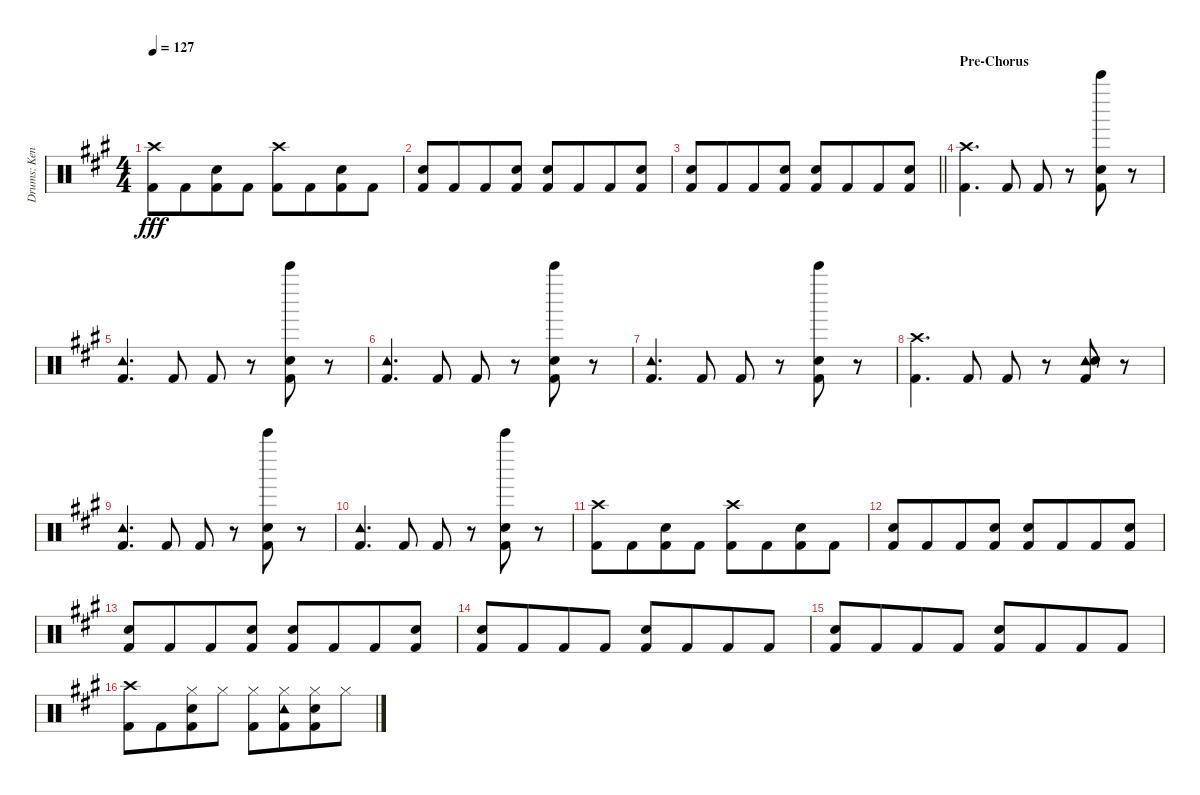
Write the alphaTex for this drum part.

\track ("Drums: Kenny" "Drums: Ken") {instrument percussion}
\staff {score}
\articulation defaults
\ts (4 4)
\tempo 127
\clef neutral
\ks a
("Crash high (hit)" "Kick (hit) 2").8{dy fff} "Kick (hit) 2".8{beam merge} ("Snare (hit) 2" "Kick (hit) 2").8 "Kick (hit) 2".8 ("Crash high (hit)" "Kick (hit) 2").8 "Kick (hit) 2".8{beam merge} ("Snare (hit) 2" "Kick (hit) 2").8 "Kick (hit) 2".8 |
("Snare (hit) 2" "Kick (hit) 2").8 "Kick (hit) 2".8{beam merge} "Kick (hit) 2".8 ("Snare (hit) 2" "Kick (hit) 2").8 ("Snare (hit) 2" "Kick (hit) 2").8 "Kick (hit) 2".8{beam merge} "Kick (hit) 2".8 ("Snare (hit) 2" "Kick (hit) 2").8 |
\barLineRight lightlight
("Snare (hit) 2" "Kick (hit) 2").8 "Kick (hit) 2".8{beam merge} "Kick (hit) 2".8 ("Snare (hit) 2" "Kick (hit) 2").8 ("Snare (hit) 2" "Kick (hit) 2").8 "Kick (hit) 2".8{beam merge} "Kick (hit) 2".8 ("Snare (hit) 2" "Kick (hit) 2").8 |
\section ("" "Pre-Chorus")
("Crash high (hit)" "Kick (hit) 2").4{d} "Kick (hit) 2".8 "Kick (hit) 2".8 r.8 ("Bell Tree (hit)" "Snare (hit) 2" "Kick (hit) 2").8 r.8 |
("Tambourine (hit)" "Kick (hit) 2").4{d} "Kick (hit) 2".8 "Kick (hit) 2".8 r.8 ("Bell Tree (hit)" "Snare (hit) 2" "Kick (hit) 2").8 r.8 |
("Tambourine (hit)" "Kick (hit) 2").4{d} "Kick (hit) 2".8 "Kick (hit) 2".8 r.8 ("Bell Tree (hit)" "Snare (hit) 2" "Kick (hit) 2").8 r.8 |
("Tambourine (hit)" "Kick (hit) 2").4{d} "Kick (hit) 2".8 "Kick (hit) 2".8 r.8 ("Bell Tree (hit)" "Snare (hit) 2" "Kick (hit) 2").8 r.8 |
("Crash high (hit)" "Kick (hit) 2").4{d} "Kick (hit) 2".8 "Kick (hit) 2".8 r.8 ("Tambourine (hit)" "Snare (hit) 2" "Kick (hit) 2").8 r.8 |
("Tambourine (hit)" "Kick (hit) 2").4{d} "Kick (hit) 2".8 "Kick (hit) 2".8 r.8 ("Bell Tree (hit)" "Snare (hit) 2" "Kick (hit) 2").8 r.8 |
("Tambourine (hit)" "Kick (hit) 2").4{d} "Kick (hit) 2".8 "Kick (hit) 2".8 r.8 ("Bell Tree (hit)" "Snare (hit) 2" "Kick (hit) 2").8 r.8 |
("Crash high (hit)" "Kick (hit) 2").8 "Kick (hit) 2".8{beam merge} ("Snare (hit) 2" "Kick (hit) 2").8 "Kick (hit) 2".8 ("Crash high (hit)" "Kick (hit) 2").8 "Kick (hit) 2".8{beam merge} ("Snare (hit) 2" "Kick (hit) 2").8 "Kick (hit) 2".8 |
("Snare (hit) 2" "Kick (hit) 2").8 "Kick (hit) 2".8{beam merge} "Kick (hit) 2".8 ("Snare (hit) 2" "Kick (hit) 2").8 ("Snare (hit) 2" "Kick (hit) 2").8 "Kick (hit) 2".8{beam merge} "Kick (hit) 2".8 ("Snare (hit) 2" "Kick (hit) 2").8 |
("Snare (hit) 2" "Kick (hit) 2").8 "Kick (hit) 2".8{beam merge} "Kick (hit) 2".8 ("Snare (hit) 2" "Kick (hit) 2").8 ("Snare (hit) 2" "Kick (hit) 2").8 "Kick (hit) 2".8{beam merge} "Kick (hit) 2".8 ("Snare (hit) 2" "Kick (hit) 2").8 |
("Snare (hit) 2" "Kick (hit) 2").8 "Kick (hit) 2".8{beam merge} "Kick (hit) 2".8 "Kick (hit) 2".8 ("Snare (hit) 2" "Kick (hit) 2").8 "Kick (hit) 2".8{beam merge} "Kick (hit) 2".8 "Kick (hit) 2".8 |
("Snare (hit) 2" "Kick (hit) 2").8 "Kick (hit) 2".8{beam merge} "Kick (hit) 2".8 "Kick (hit) 2".8 ("Snare (hit) 2" "Kick (hit) 2").8 "Kick (hit) 2".8{beam merge} "Kick (hit) 2".8 "Kick (hit) 2".8 |
("Crash high (hit)" "Kick (hit) 2").8 "Kick (hit) 2".8{beam merge} ("Hi-Hat (closed)" "Snare (hit) 2" "Kick (hit) 2").8 "Hi-Hat (closed)".8 ("Hi-Hat (closed)" "Kick (hit) 2").8 ("Tambourine (hit)" "Hi-Hat (closed)" "Kick (hit) 2").8{beam merge} ("Hi-Hat (closed)" "Snare (hit) 2" "Kick (hit) 2").8 "Hi-Hat (closed)".8
